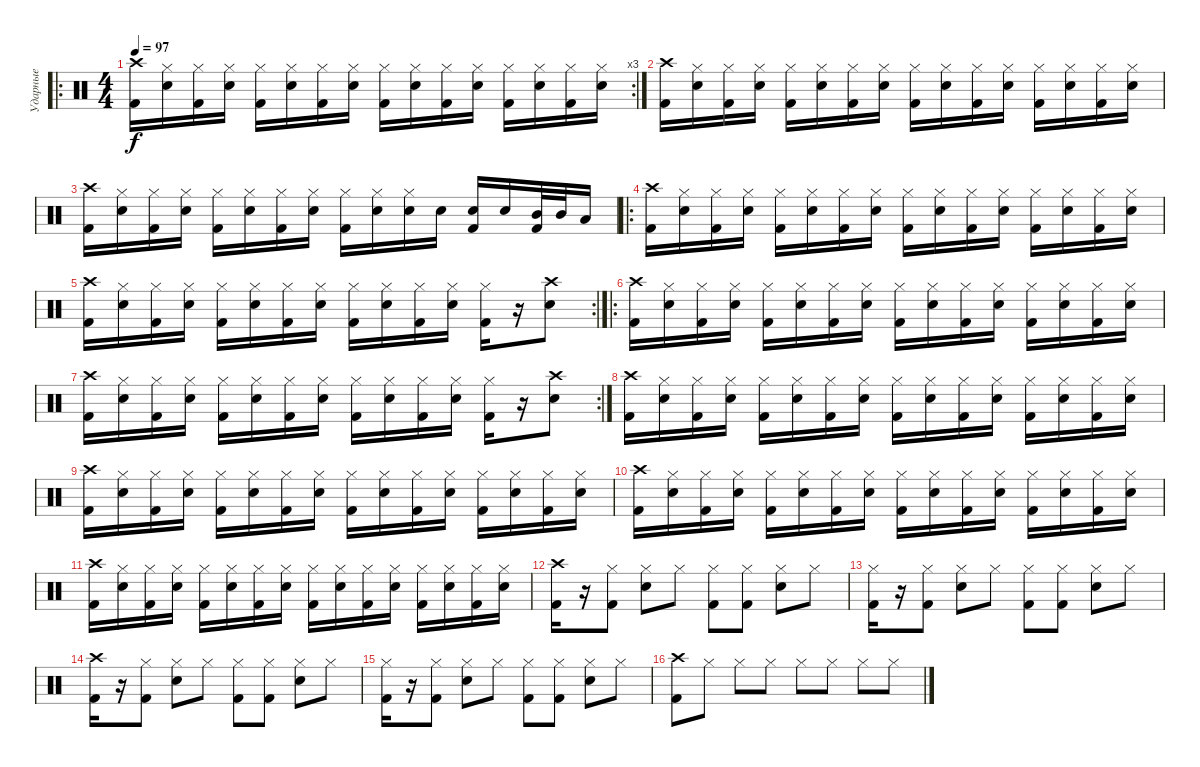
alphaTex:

\track ("Ударные" "Ударные") {instrument percussion}
\staff {score}
\articulation defaults
\ro
\rc 3
\ts (4 4)
\tempo 97
\clef neutral
\ks c
("Kick (hit) 2" "Crash high (hit)").16{dy f} ("Electric Snare (hit)" "Hi-Hat (closed)").16 ("Kick (hit) 2" "Hi-Hat (closed)").16 ("Electric Snare (hit)" "Hi-Hat (closed)").16 ("Kick (hit) 2" "Hi-Hat (closed)").16 ("Electric Snare (hit)" "Hi-Hat (closed)").16 ("Kick (hit) 2" "Hi-Hat (closed)").16 ("Electric Snare (hit)" "Hi-Hat (closed)").16 ("Kick (hit) 2" "Hi-Hat (closed)").16 ("Electric Snare (hit)" "Hi-Hat (closed)").16 ("Kick (hit) 2" "Hi-Hat (closed)").16 ("Electric Snare (hit)" "Hi-Hat (closed)").16 ("Kick (hit) 2" "Hi-Hat (closed)").16 ("Electric Snare (hit)" "Hi-Hat (closed)").16 ("Kick (hit) 2" "Hi-Hat (closed)").16 ("Electric Snare (hit)" "Hi-Hat (closed)").16 |
("Kick (hit) 2" "Crash high (hit)").16 ("Electric Snare (hit)" "Hi-Hat (closed)").16 ("Kick (hit) 2" "Hi-Hat (closed)").16 ("Electric Snare (hit)" "Hi-Hat (closed)").16 ("Kick (hit) 2" "Hi-Hat (closed)").16 ("Electric Snare (hit)" "Hi-Hat (closed)").16 ("Kick (hit) 2" "Hi-Hat (closed)").16 ("Electric Snare (hit)" "Hi-Hat (closed)").16 ("Kick (hit) 2" "Hi-Hat (closed)").16 ("Electric Snare (hit)" "Hi-Hat (closed)").16 ("Kick (hit) 2" "Hi-Hat (closed)").16 ("Electric Snare (hit)" "Hi-Hat (closed)").16 ("Kick (hit) 2" "Hi-Hat (closed)").16 ("Electric Snare (hit)" "Hi-Hat (closed)").16 ("Kick (hit) 2" "Hi-Hat (closed)").16 ("Electric Snare (hit)" "Hi-Hat (closed)").16 |
("Kick (hit) 2" "Crash high (hit)").16 ("Electric Snare (hit)" "Hi-Hat (closed)").16 ("Kick (hit) 2" "Hi-Hat (closed)").16 ("Electric Snare (hit)" "Hi-Hat (closed)").16 ("Kick (hit) 2" "Hi-Hat (closed)").16 ("Electric Snare (hit)" "Hi-Hat (closed)").16 ("Kick (hit) 2" "Hi-Hat (closed)").16 ("Electric Snare (hit)" "Hi-Hat (closed)").16 ("Kick (hit) 2" "Hi-Hat (closed)").16 ("Electric Snare (hit)" "Hi-Hat (closed)").16 ("Electric Snare (hit)" "Hi-Hat (closed)").16 "Electric Snare (hit)".16 ("Electric Snare (hit)" "Kick (hit) 2").16 "Electric Snare (hit)".16 ("Mid Tom (hit)" "Kick (hit) 2").32 "Mid Tom (hit)".32 "Low Tom (hit)".16 |
\ro
("Kick (hit) 2" "Crash high (hit)").16 ("Electric Snare (hit)" "Hi-Hat (closed)").16 ("Kick (hit) 2" "Hi-Hat (closed)").16 ("Electric Snare (hit)" "Hi-Hat (closed)").16 ("Kick (hit) 2" "Hi-Hat (closed)").16 ("Electric Snare (hit)" "Hi-Hat (closed)").16 ("Kick (hit) 2" "Hi-Hat (closed)").16 ("Electric Snare (hit)" "Hi-Hat (closed)").16 ("Kick (hit) 2" "Hi-Hat (closed)").16 ("Electric Snare (hit)" "Hi-Hat (closed)").16 ("Kick (hit) 2" "Hi-Hat (closed)").16 ("Electric Snare (hit)" "Hi-Hat (closed)").16 ("Kick (hit) 2" "Hi-Hat (closed)").16 ("Electric Snare (hit)" "Hi-Hat (closed)").16 ("Kick (hit) 2" "Hi-Hat (closed)").16 ("Electric Snare (hit)" "Hi-Hat (closed)").16 |
\rc 2
("Kick (hit) 2" "Crash high (hit)").16 ("Electric Snare (hit)" "Hi-Hat (closed)").16 ("Kick (hit) 2" "Hi-Hat (closed)").16 ("Electric Snare (hit)" "Hi-Hat (closed)").16 ("Kick (hit) 2" "Hi-Hat (closed)").16 ("Electric Snare (hit)" "Hi-Hat (closed)").16 ("Kick (hit) 2" "Hi-Hat (closed)").16 ("Electric Snare (hit)" "Hi-Hat (closed)").16 ("Kick (hit) 2" "Hi-Hat (closed)").16 ("Electric Snare (hit)" "Hi-Hat (closed)").16 ("Kick (hit) 2" "Hi-Hat (closed)").16 ("Electric Snare (hit)" "Hi-Hat (closed)").16 ("Kick (hit) 2" "Hi-Hat (closed)").16 r.16 ("Electric Snare (hit)" "Crash high (hit)").8 |
\ro
("Kick (hit) 2" "Crash high (hit)").16 ("Electric Snare (hit)" "Hi-Hat (closed)").16 ("Kick (hit) 2" "Hi-Hat (closed)").16 ("Electric Snare (hit)" "Hi-Hat (closed)").16 ("Kick (hit) 2" "Hi-Hat (closed)").16 ("Electric Snare (hit)" "Hi-Hat (closed)").16 ("Kick (hit) 2" "Hi-Hat (closed)").16 ("Electric Snare (hit)" "Hi-Hat (closed)").16 ("Kick (hit) 2" "Hi-Hat (closed)").16 ("Electric Snare (hit)" "Hi-Hat (closed)").16 ("Kick (hit) 2" "Hi-Hat (closed)").16 ("Electric Snare (hit)" "Hi-Hat (closed)").16 ("Kick (hit) 2" "Hi-Hat (closed)").16 ("Electric Snare (hit)" "Hi-Hat (closed)").16 ("Kick (hit) 2" "Hi-Hat (closed)").16 ("Electric Snare (hit)" "Hi-Hat (closed)").16 |
\rc 2
("Kick (hit) 2" "Crash high (hit)").16 ("Electric Snare (hit)" "Hi-Hat (closed)").16 ("Kick (hit) 2" "Hi-Hat (closed)").16 ("Electric Snare (hit)" "Hi-Hat (closed)").16 ("Kick (hit) 2" "Hi-Hat (closed)").16 ("Electric Snare (hit)" "Hi-Hat (closed)").16 ("Kick (hit) 2" "Hi-Hat (closed)").16 ("Electric Snare (hit)" "Hi-Hat (closed)").16 ("Kick (hit) 2" "Hi-Hat (closed)").16 ("Electric Snare (hit)" "Hi-Hat (closed)").16 ("Kick (hit) 2" "Hi-Hat (closed)").16 ("Electric Snare (hit)" "Hi-Hat (closed)").16 ("Kick (hit) 2" "Hi-Hat (closed)").16 r.16 ("Electric Snare (hit)" "Crash high (hit)").8 |
("Kick (hit) 2" "Crash high (hit)").16 ("Electric Snare (hit)" "Hi-Hat (closed)").16 ("Kick (hit) 2" "Hi-Hat (closed)").16 ("Electric Snare (hit)" "Hi-Hat (closed)").16 ("Kick (hit) 2" "Hi-Hat (closed)").16 ("Electric Snare (hit)" "Hi-Hat (closed)").16 ("Kick (hit) 2" "Hi-Hat (closed)").16 ("Electric Snare (hit)" "Hi-Hat (closed)").16 ("Kick (hit) 2" "Hi-Hat (closed)").16 ("Electric Snare (hit)" "Hi-Hat (closed)").16 ("Kick (hit) 2" "Hi-Hat (closed)").16 ("Electric Snare (hit)" "Hi-Hat (closed)").16 ("Kick (hit) 2" "Hi-Hat (closed)").16 ("Electric Snare (hit)" "Hi-Hat (closed)").16 ("Kick (hit) 2" "Hi-Hat (closed)").16 ("Electric Snare (hit)" "Hi-Hat (closed)").16 |
("Kick (hit) 2" "Crash high (hit)").16 ("Electric Snare (hit)" "Hi-Hat (closed)").16 ("Kick (hit) 2" "Hi-Hat (closed)").16 ("Electric Snare (hit)" "Hi-Hat (closed)").16 ("Kick (hit) 2" "Hi-Hat (closed)").16 ("Electric Snare (hit)" "Hi-Hat (closed)").16 ("Kick (hit) 2" "Hi-Hat (closed)").16 ("Electric Snare (hit)" "Hi-Hat (closed)").16 ("Kick (hit) 2" "Hi-Hat (closed)").16 ("Electric Snare (hit)" "Hi-Hat (closed)").16 ("Kick (hit) 2" "Hi-Hat (closed)").16 ("Electric Snare (hit)" "Hi-Hat (closed)").16 ("Kick (hit) 2" "Hi-Hat (closed)").16 ("Electric Snare (hit)" "Hi-Hat (closed)").16 ("Kick (hit) 2" "Hi-Hat (closed)").16 ("Electric Snare (hit)" "Hi-Hat (closed)").16 |
("Kick (hit) 2" "Crash high (hit)").16 ("Electric Snare (hit)" "Hi-Hat (closed)").16 ("Kick (hit) 2" "Hi-Hat (closed)").16 ("Electric Snare (hit)" "Hi-Hat (closed)").16 ("Kick (hit) 2" "Hi-Hat (closed)").16 ("Electric Snare (hit)" "Hi-Hat (closed)").16 ("Kick (hit) 2" "Hi-Hat (closed)").16 ("Electric Snare (hit)" "Hi-Hat (closed)").16 ("Kick (hit) 2" "Hi-Hat (closed)").16 ("Electric Snare (hit)" "Hi-Hat (closed)").16 ("Kick (hit) 2" "Hi-Hat (closed)").16 ("Electric Snare (hit)" "Hi-Hat (closed)").16 ("Kick (hit) 2" "Hi-Hat (closed)").16 ("Electric Snare (hit)" "Hi-Hat (closed)").16 ("Kick (hit) 2" "Hi-Hat (closed)").16 ("Electric Snare (hit)" "Hi-Hat (closed)").16 |
("Kick (hit) 2" "Crash high (hit)").16 ("Electric Snare (hit)" "Hi-Hat (closed)").16 ("Kick (hit) 2" "Hi-Hat (closed)").16 ("Electric Snare (hit)" "Hi-Hat (closed)").16 ("Kick (hit) 2" "Hi-Hat (closed)").16 ("Electric Snare (hit)" "Hi-Hat (closed)").16 ("Kick (hit) 2" "Hi-Hat (closed)").16 ("Electric Snare (hit)" "Hi-Hat (closed)").16 ("Kick (hit) 2" "Hi-Hat (closed)").16 ("Electric Snare (hit)" "Hi-Hat (closed)").16 ("Kick (hit) 2" "Hi-Hat (closed)").16 ("Electric Snare (hit)" "Hi-Hat (closed)").16 ("Kick (hit) 2" "Hi-Hat (closed)").16 ("Electric Snare (hit)" "Hi-Hat (closed)").16 ("Kick (hit) 2" "Hi-Hat (closed)").16 ("Electric Snare (hit)" "Hi-Hat (closed)").16 |
("Kick (hit) 2" "Crash high (hit)").16 r.16 ("Kick (hit) 2" "Hi-Hat (closed)").8 ("Electric Snare (hit)" "Hi-Hat (closed)").8 "Hi-Hat (closed)".8 ("Kick (hit) 2" "Hi-Hat (closed)").8 ("Kick (hit) 2" "Hi-Hat (closed)").8 ("Electric Snare (hit)" "Hi-Hat (closed)").8 "Hi-Hat (closed)".8 |
("Kick (hit) 2" "Hi-Hat (closed)").16 r.16 ("Kick (hit) 2" "Hi-Hat (closed)").8 ("Electric Snare (hit)" "Hi-Hat (closed)").8 "Hi-Hat (closed)".8 ("Kick (hit) 2" "Hi-Hat (closed)").8 ("Kick (hit) 2" "Hi-Hat (closed)").8 ("Electric Snare (hit)" "Hi-Hat (closed)").8 "Hi-Hat (closed)".8 |
("Kick (hit) 2" "Crash high (hit)").16 r.16 ("Kick (hit) 2" "Hi-Hat (closed)").8 ("Electric Snare (hit)" "Hi-Hat (closed)").8 "Hi-Hat (closed)".8 ("Kick (hit) 2" "Hi-Hat (closed)").8 ("Kick (hit) 2" "Hi-Hat (closed)").8 ("Electric Snare (hit)" "Hi-Hat (closed)").8 "Hi-Hat (closed)".8 |
("Kick (hit) 2" "Hi-Hat (closed)").16 r.16 ("Kick (hit) 2" "Hi-Hat (closed)").8 ("Electric Snare (hit)" "Hi-Hat (closed)").8 "Hi-Hat (closed)".8 ("Kick (hit) 2" "Hi-Hat (closed)").8 ("Kick (hit) 2" "Hi-Hat (closed)").8 ("Electric Snare (hit)" "Hi-Hat (closed)").8 "Hi-Hat (closed)".8 |
("Kick (hit) 2" "Crash high (hit)").8 "Hi-Hat (closed)".8 "Hi-Hat (closed)".8 "Hi-Hat (closed)".8 "Hi-Hat (closed)".8 "Hi-Hat (closed)".8 "Hi-Hat (closed)".8 "Hi-Hat (closed)".8
